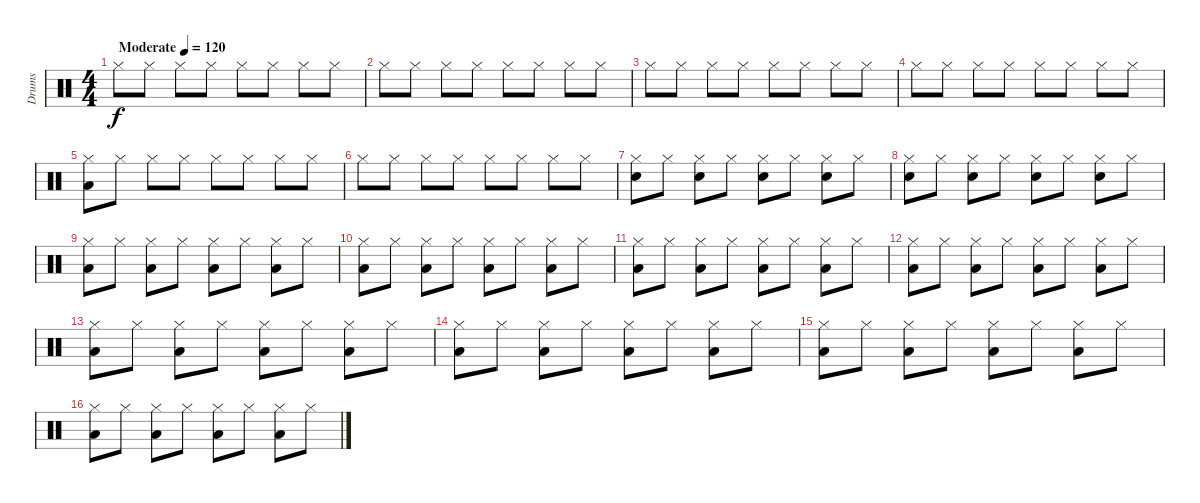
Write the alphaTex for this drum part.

\track ("Drums" "Drums") {instrument percussion}
\staff {score}
\articulation defaults
\ts (4 4)
\tempo (120 "Moderate")
\clef neutral
\ks c "Hi-Hat (closed)".8{dy f} "Hi-Hat (closed)".8 "Hi-Hat (closed)".8 "Hi-Hat (closed)".8 "Hi-Hat (closed)".8 "Hi-Hat (closed)".8 "Hi-Hat (closed)".8 "Hi-Hat (closed)".8
|
"Hi-Hat (closed)".8 "Hi-Hat (closed)".8 "Hi-Hat (closed)".8 "Hi-Hat (closed)".8 "Hi-Hat (closed)".8 "Hi-Hat (closed)".8 "Hi-Hat (closed)".8 "Hi-Hat (closed)".8 |
"Hi-Hat (closed)".8 "Hi-Hat (closed)".8 "Hi-Hat (closed)".8 "Hi-Hat (closed)".8 "Hi-Hat (closed)".8 "Hi-Hat (closed)".8 "Hi-Hat (closed)".8 "Hi-Hat (closed)".8 |
"Hi-Hat (closed)".8 "Hi-Hat (closed)".8 "Hi-Hat (closed)".8 "Hi-Hat (closed)".8 "Hi-Hat (closed)".8 "Hi-Hat (closed)".8 "Hi-Hat (closed)".8 "Hi-Hat (closed)".8 |
("Hi-Hat (closed)" "Low Floor Tom (hit)").8 "Hi-Hat (closed)".8 "Hi-Hat (closed)".8 "Hi-Hat (closed)".8 "Hi-Hat (closed)".8 "Hi-Hat (closed)".8 "Hi-Hat (closed)".8 "Hi-Hat (closed)".8 |
"Hi-Hat (closed)".8 "Hi-Hat (closed)".8 "Hi-Hat (closed)".8 "Hi-Hat (closed)".8 "Hi-Hat (closed)".8 "Hi-Hat (closed)".8 "Hi-Hat (closed)".8 "Hi-Hat (closed)".8 |
("Hi-Hat (closed)" "Snare (hit) 2").8 "Hi-Hat (closed)".8 ("Hi-Hat (closed)" "Snare (hit) 2").8 "Hi-Hat (closed)".8 ("Hi-Hat (closed)" "Snare (hit) 2").8 "Hi-Hat (closed)".8 ("Hi-Hat (closed)" "Snare (hit) 2").8 "Hi-Hat (closed)".8 |
("Hi-Hat (closed)" "Snare (hit) 2").8 "Hi-Hat (closed)".8 ("Hi-Hat (closed)" "Snare (hit) 2").8 "Hi-Hat (closed)".8 ("Hi-Hat (closed)" "Snare (hit) 2").8 "Hi-Hat (closed)".8 ("Hi-Hat (closed)" "Snare (hit) 2").8 "Hi-Hat (closed)".8 |
("Hi-Hat (closed)" "Low Floor Tom (hit)").8 "Hi-Hat (closed)".8 ("Hi-Hat (closed)" "Low Floor Tom (hit)").8 "Hi-Hat (closed)".8 ("Hi-Hat (closed)" "Low Floor Tom (hit)").8 "Hi-Hat (closed)".8 ("Hi-Hat (closed)" "Low Floor Tom (hit)").8 "Hi-Hat (closed)".8 |
("Hi-Hat (closed)" "Low Floor Tom (hit)").8 "Hi-Hat (closed)".8 ("Hi-Hat (closed)" "Low Floor Tom (hit)").8 "Hi-Hat (closed)".8 ("Hi-Hat (closed)" "Low Floor Tom (hit)").8 "Hi-Hat (closed)".8 ("Hi-Hat (closed)" "Low Floor Tom (hit)").8 "Hi-Hat (closed)".8 |
("Hi-Hat (closed)" "Low Floor Tom (hit)").8 "Hi-Hat (closed)".8 ("Hi-Hat (closed)" "Low Floor Tom (hit)").8 "Hi-Hat (closed)".8 ("Hi-Hat (closed)" "Low Floor Tom (hit)").8 "Hi-Hat (closed)".8 ("Hi-Hat (closed)" "Low Floor Tom (hit)").8 "Hi-Hat (closed)".8 |
("Hi-Hat (closed)" "Low Floor Tom (hit)").8 "Hi-Hat (closed)".8 ("Hi-Hat (closed)" "Low Floor Tom (hit)").8 "Hi-Hat (closed)".8 ("Hi-Hat (closed)" "Low Floor Tom (hit)").8 "Hi-Hat (closed)".8 ("Hi-Hat (closed)" "Low Floor Tom (hit)").8 "Hi-Hat (closed)".8 |
("Hi-Hat (closed)" "Low Floor Tom (hit)").8 "Hi-Hat (closed)".8 ("Hi-Hat (closed)" "Low Floor Tom (hit)").8 "Hi-Hat (closed)".8 ("Hi-Hat (closed)" "Low Floor Tom (hit)").8 "Hi-Hat (closed)".8 ("Hi-Hat (closed)" "Low Floor Tom (hit)").8 "Hi-Hat (closed)".8 |
("Hi-Hat (closed)" "Low Floor Tom (hit)").8 "Hi-Hat (closed)".8 ("Hi-Hat (closed)" "Low Floor Tom (hit)").8 "Hi-Hat (closed)".8 ("Hi-Hat (closed)" "Low Floor Tom (hit)").8 "Hi-Hat (closed)".8 ("Hi-Hat (closed)" "Low Floor Tom (hit)").8 "Hi-Hat (closed)".8 |
("Hi-Hat (closed)" "Low Floor Tom (hit)").8 "Hi-Hat (closed)".8 ("Hi-Hat (closed)" "Low Floor Tom (hit)").8 "Hi-Hat (closed)".8 ("Hi-Hat (closed)" "Low Floor Tom (hit)").8 "Hi-Hat (closed)".8 ("Hi-Hat (closed)" "Low Floor Tom (hit)").8 "Hi-Hat (closed)".8 |
("Hi-Hat (closed)" "Low Floor Tom (hit)").8 "Hi-Hat (closed)".8 ("Hi-Hat (closed)" "Low Floor Tom (hit)").8 "Hi-Hat (closed)".8 ("Hi-Hat (closed)" "Low Floor Tom (hit)").8 "Hi-Hat (closed)".8 ("Hi-Hat (closed)" "Low Floor Tom (hit)").8 "Hi-Hat (closed)".8
